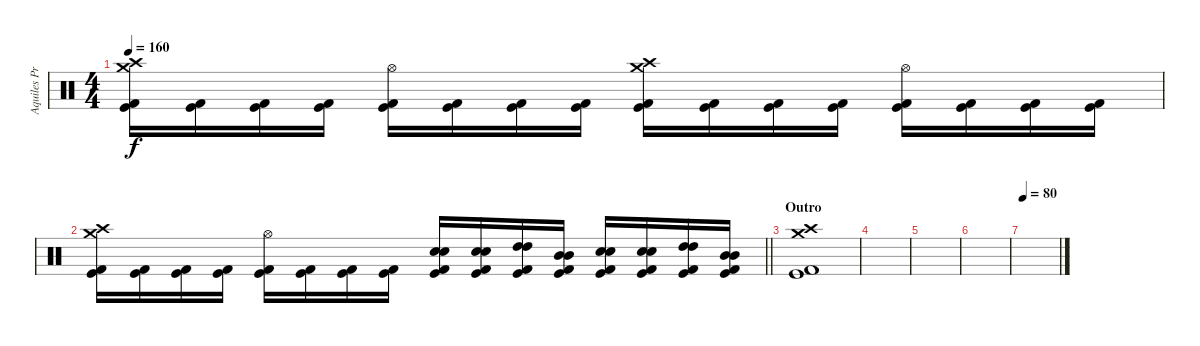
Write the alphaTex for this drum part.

\track ("Aquiles Priester" "Aquiles Pr") {instrument percussion}
\staff {score}
\articulation defaults
\ts (4 4)
\tempo 160
\clef neutral
\ks c
("Crash medium (hit)" "Crash high (hit)" "Kick (hit)" "Kick (hit) 2").16{dy f} ("Kick (hit)" "Kick (hit) 2").16 ("Kick (hit)" "Kick (hit) 2").16 ("Kick (hit)" "Kick (hit) 2").16 ("Hi-Hat (open)" "Kick (hit)" "Kick (hit) 2").16 ("Kick (hit)" "Kick (hit) 2").16 ("Kick (hit)" "Kick (hit) 2").16 ("Kick (hit)" "Kick (hit) 2").16 ("Crash medium (hit)" "Crash high (hit)" "Kick (hit)" "Kick (hit) 2").16 ("Kick (hit)" "Kick (hit) 2").16 ("Kick (hit)" "Kick (hit) 2").16 ("Kick (hit)" "Kick (hit) 2").16 ("Hi-Hat (open)" "Kick (hit)" "Kick (hit) 2").16 ("Kick (hit)" "Kick (hit) 2").16 ("Kick (hit)" "Kick (hit) 2").16 ("Kick (hit)" "Kick (hit) 2").16 |
\barLineRight lightlight
("Crash medium (hit)" "Crash high (hit)" "Kick (hit)" "Kick (hit) 2").16 ("Kick (hit)" "Kick (hit) 2").16 ("Kick (hit)" "Kick (hit) 2").16 ("Kick (hit)" "Kick (hit) 2").16 ("Hi-Hat (open)" "Kick (hit)" "Kick (hit) 2").16 ("Kick (hit)" "Kick (hit) 2").16 ("Kick (hit)" "Kick (hit) 2").16 ("Kick (hit)" "Kick (hit) 2").16 ("Electric Snare (hit)" "Electric Snare (hit)" "Kick (hit)" "Kick (hit) 2").16 ("Electric Snare (hit)" "Electric Snare (hit)" "Kick (hit)" "Kick (hit) 2").16 ("High Tom (hit)" "High Tom (hit)" "Kick (hit)" "Kick (hit) 2").16 ("Mid Tom (hit)" "Mid Tom (hit)" "Kick (hit)" "Kick (hit) 2").16 ("Electric Snare (hit)" "Electric Snare (hit)" "Kick (hit)" "Kick (hit) 2").16 ("Electric Snare (hit)" "Electric Snare (hit)" "Kick (hit)" "Kick (hit) 2").16 ("High Tom (hit)" "High Tom (hit)" "Kick (hit)" "Kick (hit) 2").16 ("Mid Tom (hit)" "Mid Tom (hit)" "Kick (hit)" "Kick (hit) 2").16 |
\section ("" "Outro")
("Crash medium (hit)" "Crash high (hit)" "Kick (hit) 2" "Kick (hit)").1{bd 120} |
|
|
|
\tempo 80
